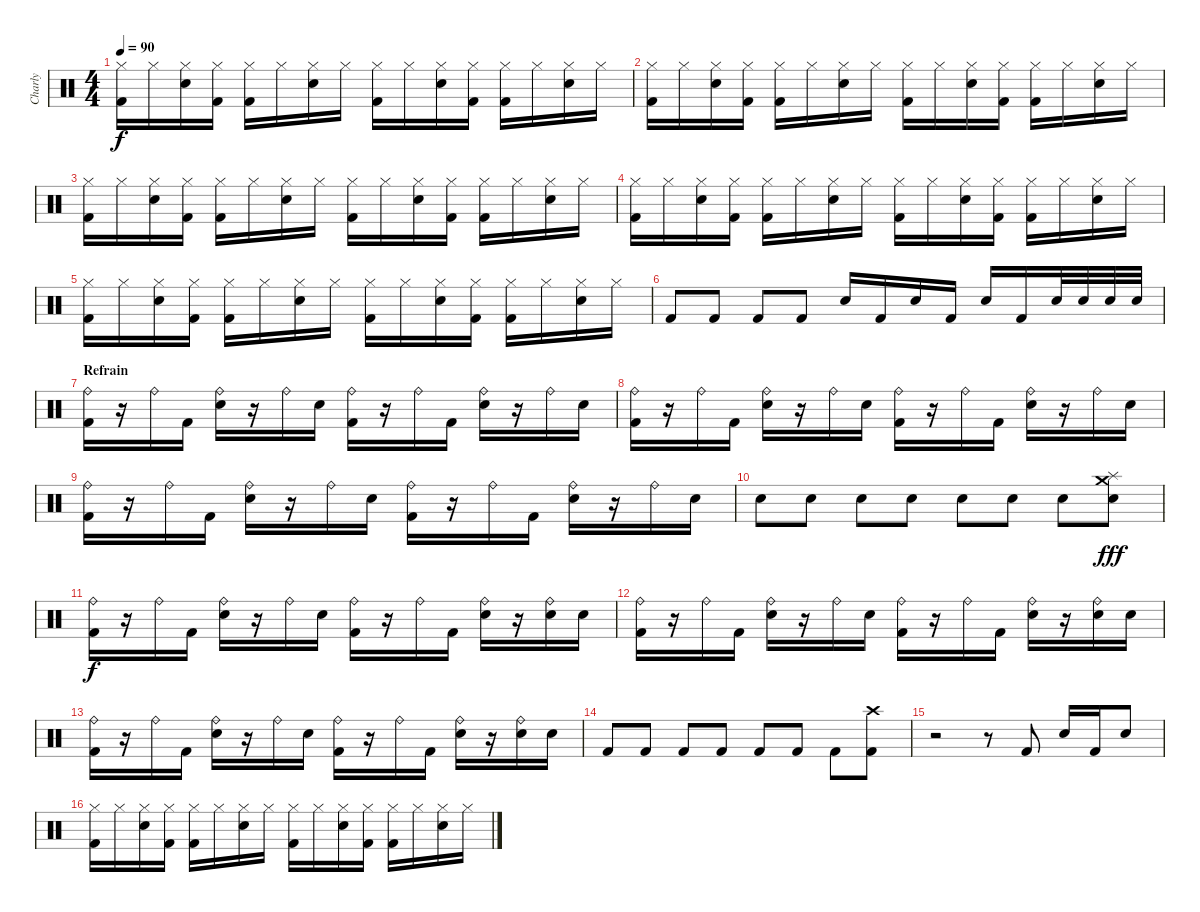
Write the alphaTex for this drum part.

\track ("Charly" "Charly") {instrument percussion}
\staff {score}
\articulation defaults
\ts (4 4)
\tempo 90
\clef neutral
\ks c
("Hi-Hat (closed)" "Kick (hit) 2").16{dy f} "Hi-Hat (closed)".16 ("Hi-Hat (closed)" "Electric Snare (hit)").16 ("Hi-Hat (closed)" "Kick (hit) 2").16 ("Hi-Hat (closed)" "Kick (hit) 2").16 "Hi-Hat (closed)".16 ("Hi-Hat (closed)" "Electric Snare (hit)").16 "Hi-Hat (closed)".16 ("Hi-Hat (closed)" "Kick (hit) 2").16 "Hi-Hat (closed)".16 ("Hi-Hat (closed)" "Electric Snare (hit)").16 ("Hi-Hat (closed)" "Kick (hit) 2").16 ("Hi-Hat (closed)" "Kick (hit) 2").16 "Hi-Hat (closed)".16 ("Hi-Hat (closed)" "Electric Snare (hit)").16 "Hi-Hat (closed)".16 |
("Hi-Hat (closed)" "Kick (hit) 2").16 "Hi-Hat (closed)".16 ("Hi-Hat (closed)" "Electric Snare (hit)").16 ("Hi-Hat (closed)" "Kick (hit) 2").16 ("Hi-Hat (closed)" "Kick (hit) 2").16 "Hi-Hat (closed)".16 ("Hi-Hat (closed)" "Electric Snare (hit)").16 "Hi-Hat (closed)".16 ("Hi-Hat (closed)" "Kick (hit) 2").16 "Hi-Hat (closed)".16 ("Hi-Hat (closed)" "Electric Snare (hit)").16 ("Hi-Hat (closed)" "Kick (hit) 2").16 ("Hi-Hat (closed)" "Kick (hit) 2").16 "Hi-Hat (closed)".16 ("Hi-Hat (closed)" "Electric Snare (hit)").16 "Hi-Hat (closed)".16 |
("Hi-Hat (closed)" "Kick (hit) 2").16 "Hi-Hat (closed)".16 ("Hi-Hat (closed)" "Electric Snare (hit)").16 ("Hi-Hat (closed)" "Kick (hit) 2").16 ("Hi-Hat (closed)" "Kick (hit) 2").16 "Hi-Hat (closed)".16 ("Hi-Hat (closed)" "Electric Snare (hit)").16 "Hi-Hat (closed)".16 ("Hi-Hat (closed)" "Kick (hit) 2").16 "Hi-Hat (closed)".16 ("Hi-Hat (closed)" "Electric Snare (hit)").16 ("Hi-Hat (closed)" "Kick (hit) 2").16 ("Hi-Hat (closed)" "Kick (hit) 2").16 "Hi-Hat (closed)".16 ("Hi-Hat (closed)" "Electric Snare (hit)").16 "Hi-Hat (closed)".16 |
("Hi-Hat (closed)" "Kick (hit) 2").16 "Hi-Hat (closed)".16 ("Hi-Hat (closed)" "Electric Snare (hit)").16 ("Hi-Hat (closed)" "Kick (hit) 2").16 ("Hi-Hat (closed)" "Kick (hit) 2").16 "Hi-Hat (closed)".16 ("Hi-Hat (closed)" "Electric Snare (hit)").16 "Hi-Hat (closed)".16 ("Hi-Hat (closed)" "Kick (hit) 2").16 "Hi-Hat (closed)".16 ("Hi-Hat (closed)" "Electric Snare (hit)").16 ("Hi-Hat (closed)" "Kick (hit) 2").16 ("Hi-Hat (closed)" "Kick (hit) 2").16 "Hi-Hat (closed)".16 ("Hi-Hat (closed)" "Electric Snare (hit)").16 "Hi-Hat (closed)".16 |
("Hi-Hat (closed)" "Kick (hit) 2").16 "Hi-Hat (closed)".16 ("Hi-Hat (closed)" "Electric Snare (hit)").16 ("Hi-Hat (closed)" "Kick (hit) 2").16 ("Hi-Hat (closed)" "Kick (hit) 2").16 "Hi-Hat (closed)".16 ("Hi-Hat (closed)" "Electric Snare (hit)").16 "Hi-Hat (closed)".16 ("Hi-Hat (closed)" "Kick (hit) 2").16 "Hi-Hat (closed)".16 ("Hi-Hat (closed)" "Electric Snare (hit)").16 ("Hi-Hat (closed)" "Kick (hit) 2").16 ("Hi-Hat (closed)" "Kick (hit) 2").16 "Hi-Hat (closed)".16 ("Hi-Hat (closed)" "Electric Snare (hit)").16 "Hi-Hat (closed)".16 |
"Kick (hit) 2".8 "Kick (hit) 2".8 "Kick (hit) 2".8 "Kick (hit) 2".8 "Electric Snare (hit)".16 "Kick (hit) 2".16 "Electric Snare (hit)".16 "Kick (hit) 2".16 "Electric Snare (hit)".16 "Kick (hit) 2".16 "Electric Snare (hit)".32 "Electric Snare (hit)".32 "Electric Snare (hit)".32 "Electric Snare (hit)".32 |
\section ("" "Refrain")
("Ride (bell)" "Kick (hit) 2").16 r.16 "Ride (bell)".16 "Kick (hit) 2".16 ("Ride (bell)" "Electric Snare (hit)").16 r.16 "Ride (bell)".16 "Electric Snare (hit)".16 ("Ride (bell)" "Kick (hit) 2").16 r.16 "Ride (bell)".16 "Kick (hit) 2".16 ("Ride (bell)" "Electric Snare (hit)").16 r.16 "Ride (bell)".16 "Electric Snare (hit)".16 |
("Ride (bell)" "Kick (hit) 2").16 r.16 "Ride (bell)".16 "Kick (hit) 2".16 ("Ride (bell)" "Electric Snare (hit)").16 r.16 "Ride (bell)".16 "Electric Snare (hit)".16 ("Ride (bell)" "Kick (hit) 2").16 r.16 "Ride (bell)".16 "Kick (hit) 2".16 ("Ride (bell)" "Electric Snare (hit)").16 r.16 "Ride (bell)".16 "Electric Snare (hit)".16 |
("Ride (bell)" "Kick (hit) 2").16 r.16 "Ride (bell)".16 "Kick (hit) 2".16 ("Ride (bell)" "Electric Snare (hit)").16 r.16 "Ride (bell)".16 "Electric Snare (hit)".16 ("Ride (bell)" "Kick (hit) 2").16 r.16 "Ride (bell)".16 "Kick (hit) 2".16 ("Ride (bell)" "Electric Snare (hit)").16 r.16 "Ride (bell)".16 "Electric Snare (hit)".16 |
"Electric Snare (hit)".8 "Electric Snare (hit)".8 "Electric Snare (hit)".8 "Electric Snare (hit)".8 "Electric Snare (hit)".8 "Electric Snare (hit)".8 "Electric Snare (hit)".8 ("Crash medium (hit)" "Splash (hit)" "Electric Snare (hit)").8{dy fff} |
("Ride (bell)" "Kick (hit) 2").16{dy f} r.16 "Ride (bell)".16 "Kick (hit) 2".16 ("Ride (bell)" "Electric Snare (hit)").16 r.16 "Ride (bell)".16 "Electric Snare (hit)".16 ("Ride (bell)" "Kick (hit) 2").16 r.16 "Ride (bell)".16 "Kick (hit) 2".16 ("Ride (bell)" "Electric Snare (hit)").16 r.16 ("Ride (bell)" "Electric Snare (hit)").16 "Electric Snare (hit)".16 |
("Ride (bell)" "Kick (hit) 2").16 r.16 "Ride (bell)".16 "Kick (hit) 2".16 ("Ride (bell)" "Electric Snare (hit)").16 r.16 "Ride (bell)".16 "Electric Snare (hit)".16 ("Ride (bell)" "Kick (hit) 2").16 r.16 "Ride (bell)".16 "Kick (hit) 2".16 ("Ride (bell)" "Electric Snare (hit)").16 r.16 ("Ride (bell)" "Electric Snare (hit)").16 "Electric Snare (hit)".16 |
("Ride (bell)" "Kick (hit) 2").16 r.16 "Ride (bell)".16 "Kick (hit) 2".16 ("Ride (bell)" "Electric Snare (hit)").16 r.16 "Ride (bell)".16 "Electric Snare (hit)".16 ("Ride (bell)" "Kick (hit) 2").16 r.16 "Ride (bell)".16 "Kick (hit) 2".16 ("Ride (bell)" "Electric Snare (hit)").16 r.16 ("Ride (bell)" "Electric Snare (hit)").16 "Electric Snare (hit)".16 |
"Kick (hit) 2".8 "Kick (hit) 2".8 "Kick (hit) 2".8 "Kick (hit) 2".8 "Kick (hit) 2".8 "Kick (hit) 2".8 "Kick (hit) 2".8 ("Crash high (hit)" "Kick (hit) 2").8 |
r.2 r.8 "Kick (hit) 2".8 "Electric Snare (hit)".16 "Kick (hit) 2".16 "Electric Snare (hit)".8 |
("Hi-Hat (closed)" "Kick (hit) 2").16 "Hi-Hat (closed)".16 ("Hi-Hat (closed)" "Electric Snare (hit)").16 ("Hi-Hat (closed)" "Kick (hit) 2").16 ("Hi-Hat (closed)" "Kick (hit) 2").16 "Hi-Hat (closed)".16 ("Hi-Hat (closed)" "Electric Snare (hit)").16 "Hi-Hat (closed)".16 ("Hi-Hat (closed)" "Kick (hit) 2").16 "Hi-Hat (closed)".16 ("Hi-Hat (closed)" "Electric Snare (hit)").16 ("Hi-Hat (closed)" "Kick (hit) 2").16 ("Hi-Hat (closed)" "Kick (hit) 2").16 "Hi-Hat (closed)".16 ("Hi-Hat (closed)" "Electric Snare (hit)").16 "Hi-Hat (closed)".16
